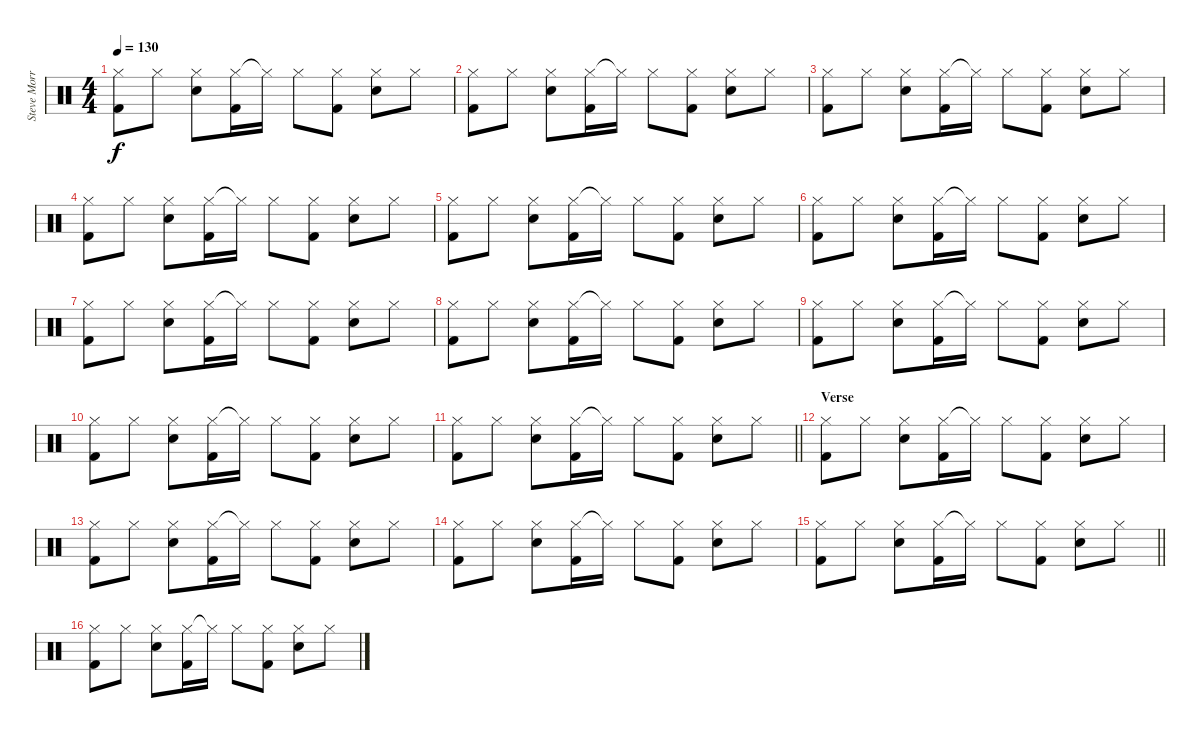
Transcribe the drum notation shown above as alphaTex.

\track ("Steve Morris" "Steve Morr") {instrument percussion}
\staff {score}
\articulation defaults
\ts (4 4)
\tempo 130
\clef neutral
\ks c
("Hi-Hat (closed)" "Kick (hit) 2").8{dy f} "Hi-Hat (closed)".8 ("Hi-Hat (closed)" "Electric Snare (hit)").8 ("Hi-Hat (closed)" "Kick (hit) 2").16 "Hi-Hat (closed)"{t}.16 "Hi-Hat (closed)".8 ("Hi-Hat (closed)" "Kick (hit) 2").8 ("Hi-Hat (closed)" "Electric Snare (hit)").8 "Hi-Hat (closed)".8 |
("Hi-Hat (closed)" "Kick (hit) 2").8 "Hi-Hat (closed)".8 ("Hi-Hat (closed)" "Electric Snare (hit)").8 ("Hi-Hat (closed)" "Kick (hit) 2").16 "Hi-Hat (closed)"{t}.16 "Hi-Hat (closed)".8 ("Hi-Hat (closed)" "Kick (hit) 2").8 ("Hi-Hat (closed)" "Electric Snare (hit)").8 "Hi-Hat (closed)".8 |
("Hi-Hat (closed)" "Kick (hit) 2").8 "Hi-Hat (closed)".8 ("Hi-Hat (closed)" "Electric Snare (hit)").8 ("Hi-Hat (closed)" "Kick (hit) 2").16 "Hi-Hat (closed)"{t}.16 "Hi-Hat (closed)".8 ("Hi-Hat (closed)" "Kick (hit) 2").8 ("Hi-Hat (closed)" "Electric Snare (hit)").8 "Hi-Hat (closed)".8 |
("Hi-Hat (closed)" "Kick (hit) 2").8 "Hi-Hat (closed)".8 ("Hi-Hat (closed)" "Electric Snare (hit)").8 ("Hi-Hat (closed)" "Kick (hit) 2").16 "Hi-Hat (closed)"{t}.16 "Hi-Hat (closed)".8 ("Hi-Hat (closed)" "Kick (hit) 2").8 ("Hi-Hat (closed)" "Electric Snare (hit)").8 "Hi-Hat (closed)".8 |
("Hi-Hat (closed)" "Kick (hit) 2").8 "Hi-Hat (closed)".8 ("Hi-Hat (closed)" "Electric Snare (hit)").8 ("Hi-Hat (closed)" "Kick (hit) 2").16 "Hi-Hat (closed)"{t}.16 "Hi-Hat (closed)".8 ("Hi-Hat (closed)" "Kick (hit) 2").8 ("Hi-Hat (closed)" "Electric Snare (hit)").8 "Hi-Hat (closed)".8 |
("Hi-Hat (closed)" "Kick (hit) 2").8 "Hi-Hat (closed)".8 ("Hi-Hat (closed)" "Electric Snare (hit)").8 ("Hi-Hat (closed)" "Kick (hit) 2").16 "Hi-Hat (closed)"{t}.16 "Hi-Hat (closed)".8 ("Hi-Hat (closed)" "Kick (hit) 2").8 ("Hi-Hat (closed)" "Electric Snare (hit)").8 "Hi-Hat (closed)".8 |
("Hi-Hat (closed)" "Kick (hit) 2").8 "Hi-Hat (closed)".8 ("Hi-Hat (closed)" "Electric Snare (hit)").8 ("Hi-Hat (closed)" "Kick (hit) 2").16 "Hi-Hat (closed)"{t}.16 "Hi-Hat (closed)".8 ("Hi-Hat (closed)" "Kick (hit) 2").8 ("Hi-Hat (closed)" "Electric Snare (hit)").8 "Hi-Hat (closed)".8 |
("Hi-Hat (closed)" "Kick (hit) 2").8 "Hi-Hat (closed)".8 ("Hi-Hat (closed)" "Electric Snare (hit)").8 ("Hi-Hat (closed)" "Kick (hit) 2").16 "Hi-Hat (closed)"{t}.16 "Hi-Hat (closed)".8 ("Hi-Hat (closed)" "Kick (hit) 2").8 ("Hi-Hat (closed)" "Electric Snare (hit)").8 "Hi-Hat (closed)".8 |
("Hi-Hat (closed)" "Kick (hit) 2").8 "Hi-Hat (closed)".8 ("Hi-Hat (closed)" "Electric Snare (hit)").8 ("Hi-Hat (closed)" "Kick (hit) 2").16 "Hi-Hat (closed)"{t}.16 "Hi-Hat (closed)".8 ("Hi-Hat (closed)" "Kick (hit) 2").8 ("Hi-Hat (closed)" "Electric Snare (hit)").8 "Hi-Hat (closed)".8 |
("Hi-Hat (closed)" "Kick (hit) 2").8 "Hi-Hat (closed)".8 ("Hi-Hat (closed)" "Electric Snare (hit)").8 ("Hi-Hat (closed)" "Kick (hit) 2").16 "Hi-Hat (closed)"{t}.16 "Hi-Hat (closed)".8 ("Hi-Hat (closed)" "Kick (hit) 2").8 ("Hi-Hat (closed)" "Electric Snare (hit)").8 "Hi-Hat (closed)".8 |
\barLineRight lightlight
("Hi-Hat (closed)" "Kick (hit) 2").8 "Hi-Hat (closed)".8 ("Hi-Hat (closed)" "Electric Snare (hit)").8 ("Hi-Hat (closed)" "Kick (hit) 2").16 "Hi-Hat (closed)"{t}.16 "Hi-Hat (closed)".8 ("Hi-Hat (closed)" "Kick (hit) 2").8 ("Hi-Hat (closed)" "Electric Snare (hit)").8 "Hi-Hat (closed)".8 |
\section ("" "Verse")
("Hi-Hat (closed)" "Kick (hit) 2").8 "Hi-Hat (closed)".8 ("Hi-Hat (closed)" "Electric Snare (hit)").8 ("Hi-Hat (closed)" "Kick (hit) 2").16 "Hi-Hat (closed)"{t}.16 "Hi-Hat (closed)".8 ("Hi-Hat (closed)" "Kick (hit) 2").8 ("Hi-Hat (closed)" "Electric Snare (hit)").8 "Hi-Hat (closed)".8 |
("Hi-Hat (closed)" "Kick (hit) 2").8 "Hi-Hat (closed)".8 ("Hi-Hat (closed)" "Electric Snare (hit)").8 ("Hi-Hat (closed)" "Kick (hit) 2").16 "Hi-Hat (closed)"{t}.16 "Hi-Hat (closed)".8 ("Hi-Hat (closed)" "Kick (hit) 2").8 ("Hi-Hat (closed)" "Electric Snare (hit)").8 "Hi-Hat (closed)".8 |
("Hi-Hat (closed)" "Kick (hit) 2").8 "Hi-Hat (closed)".8 ("Hi-Hat (closed)" "Electric Snare (hit)").8 ("Hi-Hat (closed)" "Kick (hit) 2").16 "Hi-Hat (closed)"{t}.16 "Hi-Hat (closed)".8 ("Hi-Hat (closed)" "Kick (hit) 2").8 ("Hi-Hat (closed)" "Electric Snare (hit)").8 "Hi-Hat (closed)".8 |
\barLineRight lightlight
("Hi-Hat (closed)" "Kick (hit) 2").8 "Hi-Hat (closed)".8 ("Hi-Hat (closed)" "Electric Snare (hit)").8 ("Hi-Hat (closed)" "Kick (hit) 2").16 "Hi-Hat (closed)"{t}.16 "Hi-Hat (closed)".8 ("Hi-Hat (closed)" "Kick (hit) 2").8 ("Hi-Hat (closed)" "Electric Snare (hit)").8 "Hi-Hat (closed)".8 |
("Hi-Hat (closed)" "Kick (hit) 2").8 "Hi-Hat (closed)".8 ("Hi-Hat (closed)" "Electric Snare (hit)").8 ("Hi-Hat (closed)" "Kick (hit) 2").16 "Hi-Hat (closed)"{t}.16 "Hi-Hat (closed)".8 ("Hi-Hat (closed)" "Kick (hit) 2").8 ("Hi-Hat (closed)" "Electric Snare (hit)").8 "Hi-Hat (closed)".8
